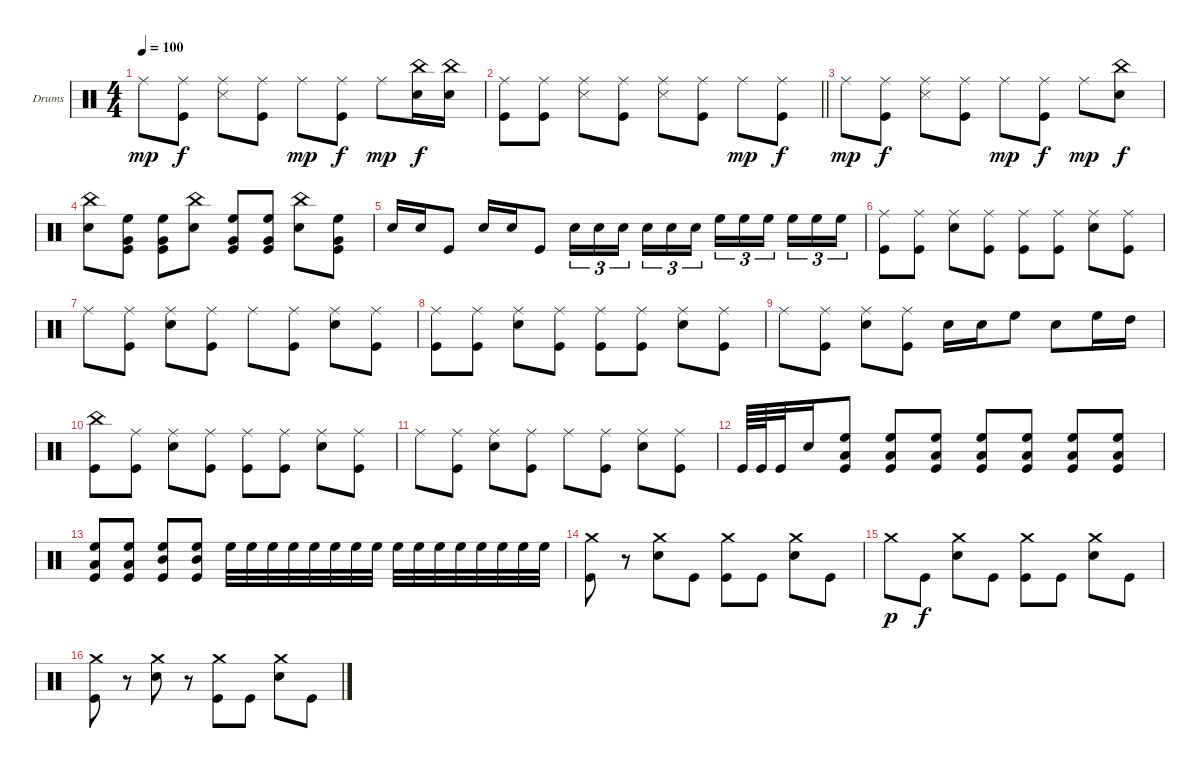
\bracketExtendMode groupsimilarinstruments
\firstSystemTrackNameOrientation horizontal
\otherSystemsTrackNameOrientation horizontal
\track ("Drumkit" "Drums") {instrument percussion}
\staff {score}
\articulation defaults
\ts (4 4)
\tempo 100
\clef neutral
\ks c "Ride (middle)".8{dy mp}
("Kick (hit)" "Ride (middle)").8{dy f} ("Snare (side stick) 3" "Ride (middle)").8 ("Kick (hit)" "Ride (middle)").8 "Ride (middle)".8{dy mp} ("Kick (hit)" "Ride (middle)").8{dy f} "Ride (middle)".8{dy mp} ("Snare (hit) 2" "China (hit)").16{dy f} ("Snare (hit) 2" "China (hit)").16 |
\barLineRight lightlight
("Kick (hit)" "Ride (middle)").8 ("Kick (hit)" "Ride (middle)").8 ("Snare (side stick) 3" "Ride (middle)").8 ("Kick (hit)" "Ride (middle)").8 ("Snare (side stick) 3" "Ride (middle)").8 ("Kick (hit)" "Ride (middle)").8 "Ride (middle)".8{dy mp} ("Kick (hit)" "Ride (middle)").8{dy f} |
"Ride (middle)".8{dy mp} ("Kick (hit)" "Ride (middle)").8{dy f} ("Snare (side stick) 3" "Ride (middle)").8 ("Kick (hit)" "Ride (middle)").8 "Ride (middle)".8{dy mp} ("Kick (hit)" "Ride (middle)").8{dy f} "Ride (middle)".8{dy mp} ("Snare (hit) 2" "China (hit)").8{dy f} |
("Snare (hit) 2" "China (hit)").8 ("High Floor Tom (hit)" "Very Low Tom (hit)" "Kick (hit)").8 ("High Floor Tom (hit)" "Very Low Tom (hit)" "Kick (hit)").8 ("China (hit)" "Snare (hit) 2").8 ("High Floor Tom (hit)" "Very Low Tom (hit)" "Kick (hit)").8 ("High Floor Tom (hit)" "Very Low Tom (hit)" "Kick (hit)").8 ("Snare (hit) 2" "China (hit)").8 ("High Floor Tom (hit)" "Very Low Tom (hit)" "Kick (hit)").8 |
"Snare (hit) 2".16 "Snare (hit) 2".16 "Kick (hit)".8 "Snare (hit) 2".16 "Snare (hit) 2".16 "Kick (hit)".8 "Snare (hit) 2".16{tu (3 2)} "Snare (hit) 2".16{tu (3 2)} "Snare (hit) 2".16{tu (3 2)} "Snare (hit) 2".16{tu (3 2)} "Snare (hit) 2".16{tu (3 2)} "Snare (hit) 2".16{tu (3 2)} "High Floor Tom (hit)".16{tu (3 2)} "High Floor Tom (hit)".16{tu (3 2)} "High Floor Tom (hit)".16{tu (3 2)} "High Floor Tom (hit)".16{tu (3 2)} "High Floor Tom (hit)".16{tu (3 2)} "High Floor Tom (hit)".16{tu (3 2)} |
("Kick (hit)" "Ride (middle)").8 ("Kick (hit)" "Ride (middle)").8 ("Snare (hit) 2" "Ride (middle)").8 ("Kick (hit)" "Ride (middle)").8 ("Kick (hit)" "Ride (middle)").8 ("Kick (hit)" "Ride (middle)").8 ("Snare (hit) 2" "Ride (middle)").8 ("Kick (hit)" "Ride (middle)").8 |
"Ride (middle)".8 ("Kick (hit)" "Ride (middle)").8 ("Snare (hit) 2" "Ride (middle)").8 ("Kick (hit)" "Ride (middle)").8 "Ride (middle)".8 ("Kick (hit)" "Ride (middle)").8 ("Snare (hit) 2" "Ride (middle)").8 ("Kick (hit)" "Ride (middle)").8 |
("Kick (hit)" "Ride (middle)").8 ("Kick (hit)" "Ride (middle)").8 ("Snare (hit) 2" "Ride (middle)").8 ("Kick (hit)" "Ride (middle)").8 ("Kick (hit)" "Ride (middle)").8 ("Kick (hit)" "Ride (middle)").8 ("Snare (hit) 2" "Ride (middle)").8 ("Kick (hit)" "Ride (middle)").8 |
"Ride (middle)".8 ("Kick (hit)" "Ride (middle)").8 ("Snare (hit) 2" "Ride (middle)").8 ("Kick (hit)" "Ride (middle)").8 "Snare (hit) 2".16 "Snare (hit) 2".16 "High Floor Tom (hit)".8 "Snare (hit) 2".8 "High Floor Tom (hit)".16 "High Tom (hit)".16 |
("Kick (hit)" "China (hit)").8 ("Kick (hit)" "Ride (middle)").8 ("Snare (hit) 2" "Ride (middle)").8 ("Kick (hit)" "Ride (middle)").8 ("Kick (hit)" "Ride (middle)").8 ("Kick (hit)" "Ride (middle)").8 ("Snare (hit) 2" "Ride (middle)").8 ("Kick (hit)" "Ride (middle)").8 |
"Ride (middle)".8 ("Kick (hit)" "Ride (middle)").8 ("Snare (hit) 2" "Ride (middle)").8 ("Kick (hit)" "Ride (middle)").8 "Ride (middle)".8 ("Kick (hit)" "Ride (middle)").8 ("Snare (hit) 2" "Ride (middle)").8 ("Kick (hit)" "Ride (middle)").8 |
"Kick (hit)".64 "Kick (hit)".64 "Kick (hit)".32 "Snare (hit) 2".16 ("High Floor Tom (hit)" "Kick (hit)" "Low Tom (hit)").8 ("High Floor Tom (hit)" "Kick (hit)" "Low Tom (hit)").8 ("High Floor Tom (hit)" "Kick (hit)" "Low Tom (hit)").8 ("High Floor Tom (hit)" "Kick (hit)" "Low Tom (hit)").8 ("High Floor Tom (hit)" "Kick (hit)" "Low Tom (hit)").8 ("High Floor Tom (hit)" "Kick (hit)" "Low Tom (hit)").8 ("High Floor Tom (hit)" "Kick (hit)" "Low Tom (hit)").8 |
("High Floor Tom (hit)" "Kick (hit)" "Low Tom (hit)").8 ("High Floor Tom (hit)" "Kick (hit)" "Low Tom (hit)").8 ("High Floor Tom (hit)" "Kick (hit)" "Mid Tom (hit)").8 ("High Floor Tom (hit)" "Kick (hit)" "Mid Tom (hit)").8 "High Floor Tom (hit)".32 "High Floor Tom (hit)".32 "High Floor Tom (hit)".32 "High Floor Tom (hit)".32 "High Floor Tom (hit)".32 "High Floor Tom (hit)".32 "High Floor Tom (hit)".32 "High Floor Tom (hit)".32 "High Floor Tom (hit)".32 "High Floor Tom (hit)".32 "High Floor Tom (hit)".32 "High Floor Tom (hit)".32 "High Floor Tom (hit)".32 "High Floor Tom (hit)".32 "High Floor Tom (hit)".32 "High Floor Tom (hit)".32 |
("Kick (hit)" "Crash medium (hit)").8 r.8 ("Snare (hit) 2" "Crash medium (hit)").8 "Kick (hit)".8 ("Kick (hit)" "Crash medium (hit)").8 "Kick (hit)".8 ("Snare (hit) 2" "Crash medium (hit)").8 "Kick (hit)".8 |
"Crash medium (hit)".8{dy p} "Kick (hit)".8{dy f} ("Snare (hit) 2" "Crash medium (hit)").8 "Kick (hit)".8 ("Kick (hit)" "Crash medium (hit)").8 "Kick (hit)".8 ("Snare (hit) 2" "Crash medium (hit)").8 "Kick (hit)".8 |
("Kick (hit)" "Crash medium (hit)").8 r.8 ("Snare (hit) 2" "Crash medium (hit)").8 r.8 ("Kick (hit)" "Crash medium (hit)").8 "Kick (hit)".8 ("Snare (hit) 2" "Crash medium (hit)").8 "Kick (hit)".8
